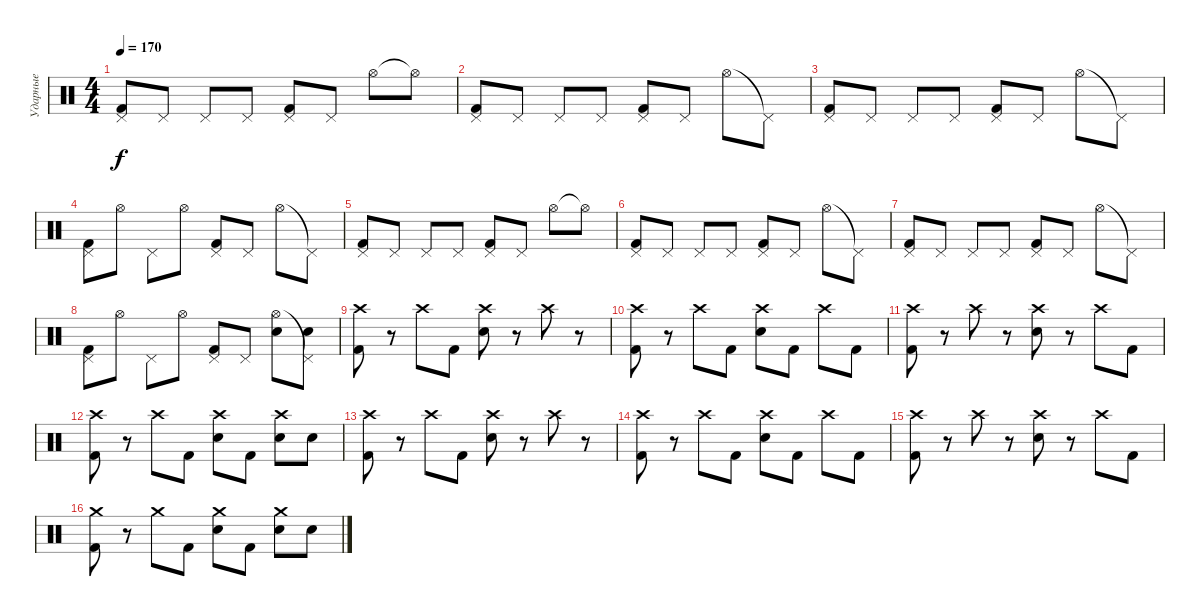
\track ("Ударные" "Ударные") {instrument percussion}
\staff {score}
\articulation defaults
\ts (4 4)
\tempo 170
\clef neutral
\ks c
("Pedal Hi-Hat (hit)" "Kick (hit) 2").8{dy f} "Pedal Hi-Hat (hit)".8 "Pedal Hi-Hat (hit)".8 "Pedal Hi-Hat (hit)".8 ("Pedal Hi-Hat (hit)" "Kick (hit) 2").8 "Pedal Hi-Hat (hit)".8 "Hi-Hat (open)".8 "Hi-Hat (open)"{t}.8 |
("Pedal Hi-Hat (hit)" "Kick (hit) 2").8 "Pedal Hi-Hat (hit)".8 "Pedal Hi-Hat (hit)".8 "Pedal Hi-Hat (hit)".8 ("Pedal Hi-Hat (hit)" "Kick (hit) 2").8 "Pedal Hi-Hat (hit)".8 "Hi-Hat (open)".8 "Pedal Hi-Hat (hit)"{t}.8 |
("Pedal Hi-Hat (hit)" "Kick (hit) 2").8 "Pedal Hi-Hat (hit)".8 "Pedal Hi-Hat (hit)".8 "Pedal Hi-Hat (hit)".8 ("Pedal Hi-Hat (hit)" "Kick (hit) 2").8 "Pedal Hi-Hat (hit)".8 "Hi-Hat (open)".8 "Pedal Hi-Hat (hit)"{t}.8 |
("Pedal Hi-Hat (hit)" "Kick (hit) 2").8 "Hi-Hat (open)".8 "Pedal Hi-Hat (hit)".8 "Hi-Hat (open)".8 ("Pedal Hi-Hat (hit)" "Kick (hit) 2").8 "Pedal Hi-Hat (hit)".8 "Hi-Hat (open)".8 "Pedal Hi-Hat (hit)"{t}.8 |
("Pedal Hi-Hat (hit)" "Kick (hit) 2").8 "Pedal Hi-Hat (hit)".8 "Pedal Hi-Hat (hit)".8 "Pedal Hi-Hat (hit)".8 ("Pedal Hi-Hat (hit)" "Kick (hit) 2").8 "Pedal Hi-Hat (hit)".8 "Hi-Hat (open)".8 "Hi-Hat (open)"{t}.8 |
("Pedal Hi-Hat (hit)" "Kick (hit) 2").8 "Pedal Hi-Hat (hit)".8 "Pedal Hi-Hat (hit)".8 "Pedal Hi-Hat (hit)".8 ("Pedal Hi-Hat (hit)" "Kick (hit) 2").8 "Pedal Hi-Hat (hit)".8 "Hi-Hat (open)".8 "Pedal Hi-Hat (hit)"{t}.8 |
("Pedal Hi-Hat (hit)" "Kick (hit) 2").8 "Pedal Hi-Hat (hit)".8 "Pedal Hi-Hat (hit)".8 "Pedal Hi-Hat (hit)".8 ("Pedal Hi-Hat (hit)" "Kick (hit) 2").8 "Pedal Hi-Hat (hit)".8 "Hi-Hat (open)".8 "Pedal Hi-Hat (hit)"{t}.8 |
("Pedal Hi-Hat (hit)" "Kick (hit) 2").8 "Hi-Hat (open)".8 "Pedal Hi-Hat (hit)".8 "Hi-Hat (open)".8 ("Pedal Hi-Hat (hit)" "Kick (hit) 2").8 "Pedal Hi-Hat (hit)".8 ("Hi-Hat (open)" "Snare (hit) 2").8 ("Pedal Hi-Hat (hit)"{t} "Snare (hit) 2").8 |
("Crash high (hit)" "Kick (hit) 2").8 r.8 "Crash high (hit)".8 "Kick (hit) 2".8 ("Crash high (hit)" "Snare (hit) 2").8 r.8 "Crash high (hit)".8 r.8 |
("Crash high (hit)" "Kick (hit) 2").8 r.8 "Crash high (hit)".8 "Kick (hit) 2".8 ("Crash high (hit)" "Snare (hit) 2").8 "Kick (hit) 2".8 "Crash high (hit)".8 "Kick (hit) 2".8 |
("Crash high (hit)" "Kick (hit) 2").8 r.8 "Crash high (hit)".8 r.8 ("Crash high (hit)" "Snare (hit) 2").8 r.8 "Crash high (hit)".8 "Kick (hit) 2".8 |
("Crash high (hit)" "Kick (hit) 2").8 r.8 "Crash high (hit)".8 "Kick (hit) 2".8 ("Crash high (hit)" "Snare (hit) 2").8 "Kick (hit) 2".8 ("Crash high (hit)" "Snare (hit) 2").8 "Snare (hit) 2".8 |
("Crash high (hit)" "Kick (hit) 2").8 r.8 "Crash high (hit)".8 "Kick (hit) 2".8 ("Crash high (hit)" "Snare (hit) 2").8 r.8 "Crash high (hit)".8 r.8 |
("Crash high (hit)" "Kick (hit) 2").8 r.8 "Crash high (hit)".8 "Kick (hit) 2".8 ("Crash high (hit)" "Snare (hit) 2").8 "Kick (hit) 2".8 "Crash high (hit)".8 "Kick (hit) 2".8 |
("Crash high (hit)" "Kick (hit) 2").8 r.8 "Crash high (hit)".8 r.8 ("Crash high (hit)" "Snare (hit) 2").8 r.8 "Crash high (hit)".8 "Kick (hit) 2".8 |
("Crash medium (hit)" "Kick (hit) 2").8 r.8 "Crash medium (hit)".8 "Kick (hit) 2".8 ("Crash medium (hit)" "Snare (hit) 2").8 "Kick (hit) 2".8 ("Crash medium (hit)" "Snare (hit) 2").8 "Snare (hit) 2".8
